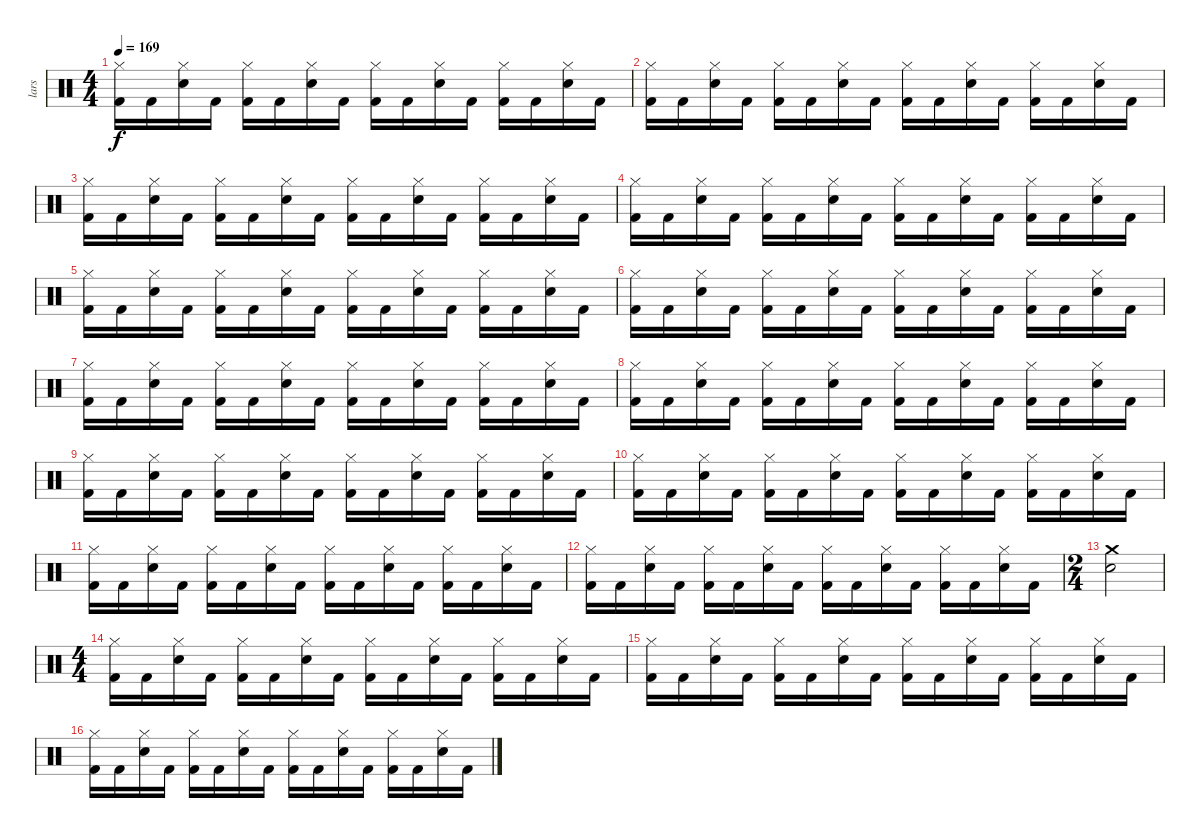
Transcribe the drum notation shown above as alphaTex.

\track ("lars" "lars") {instrument percussion}
\staff {score}
\articulation defaults
\ts (4 4)
\tempo 169
\clef neutral
\ks c
("Kick (hit) 2" "Hi-Hat (closed)").16{dy f} "Kick (hit) 2".16 ("Snare (hit) 2" "Hi-Hat (closed)").16 "Kick (hit) 2".16 ("Hi-Hat (closed)" "Kick (hit) 2").16 "Kick (hit) 2".16 ("Snare (hit) 2" "Hi-Hat (closed)").16 "Kick (hit) 2".16 ("Kick (hit) 2" "Hi-Hat (closed)").16 "Kick (hit) 2".16 ("Snare (hit) 2" "Hi-Hat (closed)").16 "Kick (hit) 2".16 ("Hi-Hat (closed)" "Kick (hit) 2").16 "Kick (hit) 2".16 ("Snare (hit) 2" "Hi-Hat (closed)").16 "Kick (hit) 2".16 |
("Kick (hit) 2" "Hi-Hat (closed)").16 "Kick (hit) 2".16 ("Snare (hit) 2" "Hi-Hat (closed)").16 "Kick (hit) 2".16 ("Hi-Hat (closed)" "Kick (hit) 2").16 "Kick (hit) 2".16 ("Snare (hit) 2" "Hi-Hat (closed)").16 "Kick (hit) 2".16 ("Kick (hit) 2" "Hi-Hat (closed)").16 "Kick (hit) 2".16 ("Snare (hit) 2" "Hi-Hat (closed)").16 "Kick (hit) 2".16 ("Hi-Hat (closed)" "Kick (hit) 2").16 "Kick (hit) 2".16 ("Snare (hit) 2" "Hi-Hat (closed)").16 "Kick (hit) 2".16 |
("Kick (hit) 2" "Hi-Hat (closed)").16 "Kick (hit) 2".16 ("Snare (hit) 2" "Hi-Hat (closed)").16 "Kick (hit) 2".16 ("Hi-Hat (closed)" "Kick (hit) 2").16 "Kick (hit) 2".16 ("Snare (hit) 2" "Hi-Hat (closed)").16 "Kick (hit) 2".16 ("Kick (hit) 2" "Hi-Hat (closed)").16 "Kick (hit) 2".16 ("Snare (hit) 2" "Hi-Hat (closed)").16 "Kick (hit) 2".16 ("Hi-Hat (closed)" "Kick (hit) 2").16 "Kick (hit) 2".16 ("Snare (hit) 2" "Hi-Hat (closed)").16 "Kick (hit) 2".16 |
("Kick (hit) 2" "Hi-Hat (closed)").16 "Kick (hit) 2".16 ("Snare (hit) 2" "Hi-Hat (closed)").16 "Kick (hit) 2".16 ("Hi-Hat (closed)" "Kick (hit) 2").16 "Kick (hit) 2".16 ("Snare (hit) 2" "Hi-Hat (closed)").16 "Kick (hit) 2".16 ("Kick (hit) 2" "Hi-Hat (closed)").16 "Kick (hit) 2".16 ("Snare (hit) 2" "Hi-Hat (closed)").16 "Kick (hit) 2".16 ("Hi-Hat (closed)" "Kick (hit) 2").16 "Kick (hit) 2".16 ("Snare (hit) 2" "Hi-Hat (closed)").16 "Kick (hit) 2".16 |
("Kick (hit) 2" "Hi-Hat (closed)").16 "Kick (hit) 2".16 ("Snare (hit) 2" "Hi-Hat (closed)").16 "Kick (hit) 2".16 ("Hi-Hat (closed)" "Kick (hit) 2").16 "Kick (hit) 2".16 ("Snare (hit) 2" "Hi-Hat (closed)").16 "Kick (hit) 2".16 ("Kick (hit) 2" "Hi-Hat (closed)").16 "Kick (hit) 2".16 ("Snare (hit) 2" "Hi-Hat (closed)").16 "Kick (hit) 2".16 ("Hi-Hat (closed)" "Kick (hit) 2").16 "Kick (hit) 2".16 ("Snare (hit) 2" "Hi-Hat (closed)").16 "Kick (hit) 2".16 |
("Kick (hit) 2" "Hi-Hat (closed)").16 "Kick (hit) 2".16 ("Snare (hit) 2" "Hi-Hat (closed)").16 "Kick (hit) 2".16 ("Hi-Hat (closed)" "Kick (hit) 2").16 "Kick (hit) 2".16 ("Snare (hit) 2" "Hi-Hat (closed)").16 "Kick (hit) 2".16 ("Kick (hit) 2" "Hi-Hat (closed)").16 "Kick (hit) 2".16 ("Snare (hit) 2" "Hi-Hat (closed)").16 "Kick (hit) 2".16 ("Hi-Hat (closed)" "Kick (hit) 2").16 "Kick (hit) 2".16 ("Snare (hit) 2" "Hi-Hat (closed)").16 "Kick (hit) 2".16 |
("Kick (hit) 2" "Hi-Hat (closed)").16 "Kick (hit) 2".16 ("Snare (hit) 2" "Hi-Hat (closed)").16 "Kick (hit) 2".16 ("Hi-Hat (closed)" "Kick (hit) 2").16 "Kick (hit) 2".16 ("Snare (hit) 2" "Hi-Hat (closed)").16 "Kick (hit) 2".16 ("Kick (hit) 2" "Hi-Hat (closed)").16 "Kick (hit) 2".16 ("Snare (hit) 2" "Hi-Hat (closed)").16 "Kick (hit) 2".16 ("Hi-Hat (closed)" "Kick (hit) 2").16 "Kick (hit) 2".16 ("Snare (hit) 2" "Hi-Hat (closed)").16 "Kick (hit) 2".16 |
("Kick (hit) 2" "Hi-Hat (closed)").16 "Kick (hit) 2".16 ("Snare (hit) 2" "Hi-Hat (closed)").16 "Kick (hit) 2".16 ("Hi-Hat (closed)" "Kick (hit) 2").16 "Kick (hit) 2".16 ("Snare (hit) 2" "Hi-Hat (closed)").16 "Kick (hit) 2".16 ("Kick (hit) 2" "Hi-Hat (closed)").16 "Kick (hit) 2".16 ("Snare (hit) 2" "Hi-Hat (closed)").16 "Kick (hit) 2".16 ("Hi-Hat (closed)" "Kick (hit) 2").16 "Kick (hit) 2".16 ("Snare (hit) 2" "Hi-Hat (closed)").16 "Kick (hit) 2".16 |
("Kick (hit) 2" "Hi-Hat (closed)").16 "Kick (hit) 2".16 ("Snare (hit) 2" "Hi-Hat (closed)").16 "Kick (hit) 2".16 ("Hi-Hat (closed)" "Kick (hit) 2").16 "Kick (hit) 2".16 ("Snare (hit) 2" "Hi-Hat (closed)").16 "Kick (hit) 2".16 ("Kick (hit) 2" "Hi-Hat (closed)").16 "Kick (hit) 2".16 ("Snare (hit) 2" "Hi-Hat (closed)").16 "Kick (hit) 2".16 ("Hi-Hat (closed)" "Kick (hit) 2").16 "Kick (hit) 2".16 ("Snare (hit) 2" "Hi-Hat (closed)").16 "Kick (hit) 2".16 |
("Kick (hit) 2" "Hi-Hat (closed)").16 "Kick (hit) 2".16 ("Snare (hit) 2" "Hi-Hat (closed)").16 "Kick (hit) 2".16 ("Hi-Hat (closed)" "Kick (hit) 2").16 "Kick (hit) 2".16 ("Snare (hit) 2" "Hi-Hat (closed)").16 "Kick (hit) 2".16 ("Kick (hit) 2" "Hi-Hat (closed)").16 "Kick (hit) 2".16 ("Snare (hit) 2" "Hi-Hat (closed)").16 "Kick (hit) 2".16 ("Hi-Hat (closed)" "Kick (hit) 2").16 "Kick (hit) 2".16 ("Snare (hit) 2" "Hi-Hat (closed)").16 "Kick (hit) 2".16 |
("Kick (hit) 2" "Hi-Hat (closed)").16 "Kick (hit) 2".16 ("Snare (hit) 2" "Hi-Hat (closed)").16 "Kick (hit) 2".16 ("Hi-Hat (closed)" "Kick (hit) 2").16 "Kick (hit) 2".16 ("Snare (hit) 2" "Hi-Hat (closed)").16 "Kick (hit) 2".16 ("Kick (hit) 2" "Hi-Hat (closed)").16 "Kick (hit) 2".16 ("Snare (hit) 2" "Hi-Hat (closed)").16 "Kick (hit) 2".16 ("Hi-Hat (closed)" "Kick (hit) 2").16 "Kick (hit) 2".16 ("Snare (hit) 2" "Hi-Hat (closed)").16 "Kick (hit) 2".16 |
("Kick (hit) 2" "Hi-Hat (closed)").16 "Kick (hit) 2".16 ("Snare (hit) 2" "Hi-Hat (closed)").16 "Kick (hit) 2".16 ("Hi-Hat (closed)" "Kick (hit) 2").16 "Kick (hit) 2".16 ("Snare (hit) 2" "Hi-Hat (closed)").16 "Kick (hit) 2".16 ("Kick (hit) 2" "Hi-Hat (closed)").16 "Kick (hit) 2".16 ("Snare (hit) 2" "Hi-Hat (closed)").16 "Kick (hit) 2".16 ("Hi-Hat (closed)" "Kick (hit) 2").16 "Kick (hit) 2".16 ("Snare (hit) 2" "Hi-Hat (closed)").16 "Kick (hit) 2".16 |
\ts (2 4)
("Snare (hit) 2" "Crash medium (hit)").2 |
\ts (4 4)
("Kick (hit) 2" "Hi-Hat (closed)").16 "Kick (hit) 2".16 ("Snare (hit) 2" "Hi-Hat (closed)").16 "Kick (hit) 2".16 ("Hi-Hat (closed)" "Kick (hit) 2").16 "Kick (hit) 2".16 ("Snare (hit) 2" "Hi-Hat (closed)").16 "Kick (hit) 2".16 ("Kick (hit) 2" "Hi-Hat (closed)").16 "Kick (hit) 2".16 ("Snare (hit) 2" "Hi-Hat (closed)").16 "Kick (hit) 2".16 ("Hi-Hat (closed)" "Kick (hit) 2").16 "Kick (hit) 2".16 ("Snare (hit) 2" "Hi-Hat (closed)").16 "Kick (hit) 2".16 |
("Kick (hit) 2" "Hi-Hat (closed)").16 "Kick (hit) 2".16 ("Snare (hit) 2" "Hi-Hat (closed)").16 "Kick (hit) 2".16 ("Hi-Hat (closed)" "Kick (hit) 2").16 "Kick (hit) 2".16 ("Snare (hit) 2" "Hi-Hat (closed)").16 "Kick (hit) 2".16 ("Kick (hit) 2" "Hi-Hat (closed)").16 "Kick (hit) 2".16 ("Snare (hit) 2" "Hi-Hat (closed)").16 "Kick (hit) 2".16 ("Hi-Hat (closed)" "Kick (hit) 2").16 "Kick (hit) 2".16 ("Snare (hit) 2" "Hi-Hat (closed)").16 "Kick (hit) 2".16 |
("Kick (hit) 2" "Hi-Hat (closed)").16 "Kick (hit) 2".16 ("Snare (hit) 2" "Hi-Hat (closed)").16 "Kick (hit) 2".16 ("Hi-Hat (closed)" "Kick (hit) 2").16 "Kick (hit) 2".16 ("Snare (hit) 2" "Hi-Hat (closed)").16 "Kick (hit) 2".16 ("Kick (hit) 2" "Hi-Hat (closed)").16 "Kick (hit) 2".16 ("Snare (hit) 2" "Hi-Hat (closed)").16 "Kick (hit) 2".16 ("Hi-Hat (closed)" "Kick (hit) 2").16 "Kick (hit) 2".16 ("Snare (hit) 2" "Hi-Hat (closed)").16 "Kick (hit) 2".16
